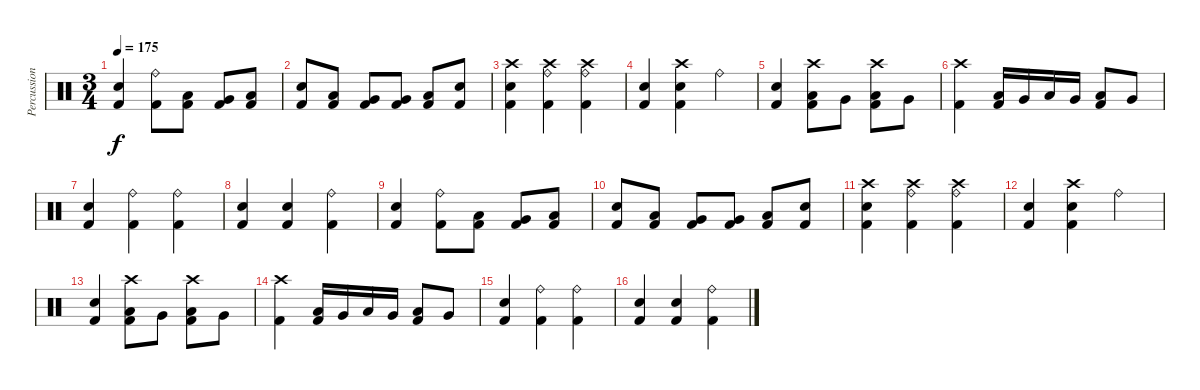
\track ("Percussion" "Percussion") {instrument percussion}
\staff {score}
\articulation defaults
\ts (3 4)
\tempo 175
\clef neutral
\ks c
("Electric Snare (hit)" "Kick (hit) 2").4{dy f} ("Ride (bell)" "Kick (hit) 2").8 ("Low Floor Tom (hit)" "Kick (hit) 2").8 ("Very Low Tom (hit)" "Kick (hit) 2").8 ("Low Floor Tom (hit)" "Kick (hit) 2").8 |
("Electric Snare (hit)" "Kick (hit) 2").8 ("Low Floor Tom (hit)" "Kick (hit) 2").8 ("Very Low Tom (hit)" "Kick (hit) 2").8 ("Very Low Tom (hit)" "Kick (hit) 2").8 ("Low Floor Tom (hit)" "Kick (hit) 2").8 ("Electric Snare (hit)" "Kick (hit) 2").8 |
("Crash high (hit)" "Electric Snare (hit)" "Kick (hit) 2").4 ("Crash high (hit)" "Ride (bell)" "Kick (hit) 2").4 ("Crash high (hit)" "Ride (bell)" "Kick (hit) 2").4 |
("Electric Snare (hit)" "Kick (hit) 2").4 ("Crash high (hit)" "Electric Snare (hit)" "Kick (hit) 2").4 "Ride (bell)".4 |
("Electric Snare (hit)" "Kick (hit) 2").4 ("Crash high (hit)" "Low Floor Tom (hit)" "Kick (hit) 2").8 "Very Low Tom (hit)".8 ("Crash high (hit)" "Low Floor Tom (hit)" "Kick (hit) 2").8 "Very Low Tom (hit)".8 |
("Crash high (hit)" "Kick (hit) 2").4 ("Low Floor Tom (hit)" "Kick (hit) 2").16 "Very Low Tom (hit)".16 "Low Floor Tom (hit)".16 "Very Low Tom (hit)".16 ("Low Floor Tom (hit)" "Kick (hit) 2").8 "Very Low Tom (hit)".8 |
("Electric Snare (hit)" "Kick (hit) 2").4 ("Ride (bell)" "Kick (hit) 2").4 ("Ride (bell)" "Kick (hit) 2").4 |
("Electric Snare (hit)" "Kick (hit) 2").4 ("Electric Snare (hit)" "Kick (hit) 2").4 ("Ride (bell)" "Kick (hit) 2").4 |
("Electric Snare (hit)" "Kick (hit) 2").4 ("Ride (bell)" "Kick (hit) 2").8 ("Low Floor Tom (hit)" "Kick (hit) 2").8 ("Very Low Tom (hit)" "Kick (hit) 2").8 ("Low Floor Tom (hit)" "Kick (hit) 2").8 |
("Electric Snare (hit)" "Kick (hit) 2").8 ("Low Floor Tom (hit)" "Kick (hit) 2").8 ("Very Low Tom (hit)" "Kick (hit) 2").8 ("Very Low Tom (hit)" "Kick (hit) 2").8 ("Low Floor Tom (hit)" "Kick (hit) 2").8 ("Electric Snare (hit)" "Kick (hit) 2").8 |
("Crash high (hit)" "Electric Snare (hit)" "Kick (hit) 2").4 ("Crash high (hit)" "Ride (bell)" "Kick (hit) 2").4 ("Crash high (hit)" "Ride (bell)" "Kick (hit) 2").4 |
("Electric Snare (hit)" "Kick (hit) 2").4 ("Crash high (hit)" "Electric Snare (hit)" "Kick (hit) 2").4 "Ride (bell)".4 |
("Electric Snare (hit)" "Kick (hit) 2").4 ("Crash high (hit)" "Low Floor Tom (hit)" "Kick (hit) 2").8 "Very Low Tom (hit)".8 ("Crash high (hit)" "Low Floor Tom (hit)" "Kick (hit) 2").8 "Very Low Tom (hit)".8 |
("Crash high (hit)" "Kick (hit) 2").4 ("Low Floor Tom (hit)" "Kick (hit) 2").16 "Very Low Tom (hit)".16 "Low Floor Tom (hit)".16 "Very Low Tom (hit)".16 ("Low Floor Tom (hit)" "Kick (hit) 2").8 "Very Low Tom (hit)".8 |
("Electric Snare (hit)" "Kick (hit) 2").4 ("Ride (bell)" "Kick (hit) 2").4 ("Ride (bell)" "Kick (hit) 2").4 |
("Electric Snare (hit)" "Kick (hit) 2").4 ("Electric Snare (hit)" "Kick (hit) 2").4 ("Ride (bell)" "Kick (hit) 2").4
